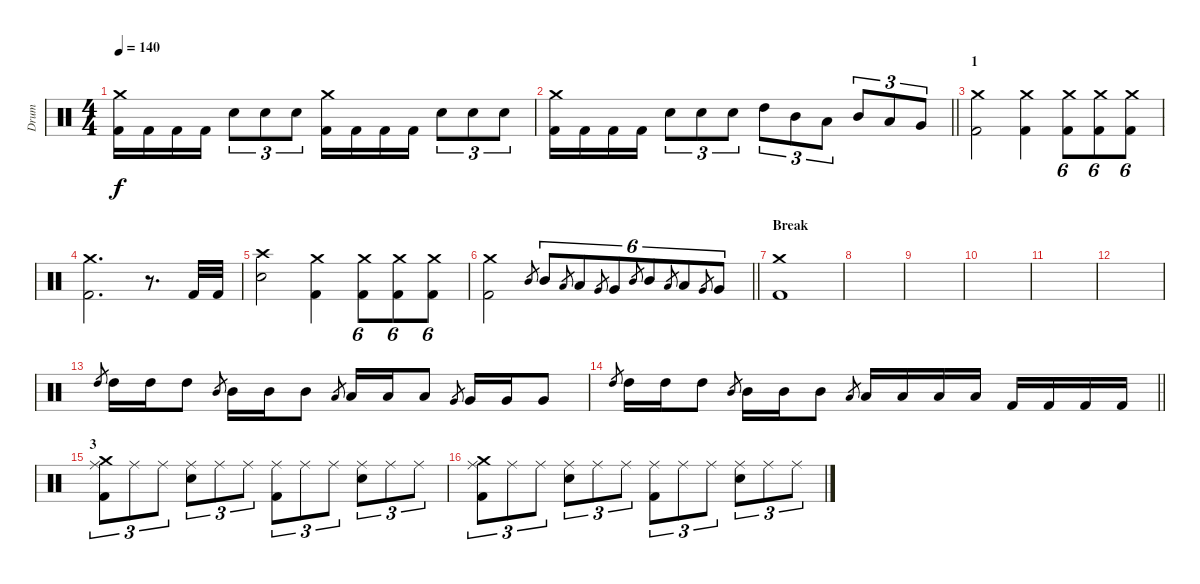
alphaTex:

\track ("Drum" "Drum") {instrument percussion}
\staff {score}
\articulation defaults
\ts (4 4)
\tempo 140
\clef neutral
\ks c
("Crash medium (hit)" "Kick (hit) 2").16{dy f} "Kick (hit) 2".16 "Kick (hit) 2".16 "Kick (hit) 2".16 "Electric Snare (hit)".8{tu (3 2)} "Electric Snare (hit)".8{tu (3 2)} "Electric Snare (hit)".8{tu (3 2)} ("Crash medium (hit)" "Kick (hit) 2").16 "Kick (hit) 2".16 "Kick (hit) 2".16 "Kick (hit) 2".16 "Electric Snare (hit)".8{tu (3 2)} "Electric Snare (hit)".8{tu (3 2)} "Electric Snare (hit)".8{tu (3 2)} |
\barLineRight lightlight
("Crash medium (hit)" "Kick (hit) 2").16 "Kick (hit) 2".16 "Kick (hit) 2".16 "Kick (hit) 2".16 "Electric Snare (hit)".8{tu (3 2)} "Electric Snare (hit)".8{tu (3 2)} "Electric Snare (hit)".8{tu (3 2)} "High Tom (hit)".8{tu (3 2)} "Mid Tom (hit)".8{tu (3 2)} "Low Tom (hit)".8{tu (3 2)} "Mid Tom (hit)".8{tu (3 2)} "Low Tom (hit)".8{tu (3 2)} "Very Low Tom (hit)".8{tu (3 2)} |
\section ("" "1")
("Crash medium (hit)" "Kick (hit) 2").2 ("Crash medium (hit)" "Kick (hit) 2").4 ("Crash medium (hit)" "Kick (hit) 2").8{tu (6 4)} ("Crash medium (hit)" "Kick (hit) 2").8{tu (6 4)} ("Crash medium (hit)" "Kick (hit) 2").8{tu (6 4)} |
("Crash medium (hit)" "Kick (hit) 2").2{d} r.8{d} "Kick (hit) 2".32 "Kick (hit) 2".32 |
("Crash high (hit)" "Electric Snare (hit)").2 ("Crash medium (hit)" "Kick (hit) 2").4 ("Crash medium (hit)" "Kick (hit) 2").8{tu (6 4)} ("Crash medium (hit)" "Kick (hit) 2").8{tu (6 4)} ("Crash medium (hit)" "Kick (hit) 2").8{tu (6 4)} |
\barLineRight lightlight
("Crash medium (hit)" "Kick (hit) 2").2 "Mid Tom (hit)".8{gr} "Mid Tom (hit)".8{tu (6 4)} "Low Tom (hit)".8{gr} "Low Tom (hit)".8{tu (6 4)} "Very Low Tom (hit)".8{gr} "Very Low Tom (hit)".8{tu (6 4)} "Mid Tom (hit)".8{gr} "Mid Tom (hit)".8{tu (6 4)} "Low Tom (hit)".8{gr} "Low Tom (hit)".8{tu (6 4)} "Very Low Tom (hit)".8{gr} "Very Low Tom (hit)".8{tu (6 4)} |
\section ("" "Break")
("Crash medium (hit)" "Kick (hit) 2").1 |
|
|
|
|
|
"High Tom (hit)".8{gr} "High Tom (hit)".16 "High Tom (hit)".16 "High Tom (hit)".8 "Mid Tom (hit)".8{gr} "Mid Tom (hit)".16 "Mid Tom (hit)".16 "Mid Tom (hit)".8 "Low Tom (hit)".8{gr} "Low Tom (hit)".16 "Low Tom (hit)".16 "Low Tom (hit)".8 "Very Low Tom (hit)".8{gr} "Very Low Tom (hit)".16 "Very Low Tom (hit)".16 "Very Low Tom (hit)".8 |
\barLineRight lightlight "High Tom (hit)".8{gr} "High Tom (hit)".16 "High Tom (hit)".16 "High Tom (hit)".8 "Mid Tom (hit)".8{gr} "Mid Tom (hit)".16 "Mid Tom (hit)".16 "Mid Tom (hit)".8 "Low Tom (hit)".8{gr} "Low Tom (hit)".16 "Low Tom (hit)".16 "Low Tom (hit)".16 "Low Tom (hit)".16 "Kick (hit) 2".16 "Kick (hit) 2".16 "Kick (hit) 2".16 "Kick (hit) 2".16
|
\section ("" "3")
("Crash medium (hit)" "Ride (middle)" "Kick (hit) 2").8{tu (3 2)} "Ride (middle)".8{tu (3 2)} "Ride (middle)".8{tu (3 2)} ("Ride (middle)" "Electric Snare (hit)").8{tu (3 2)} "Ride (middle)".8{tu (3 2)} "Ride (middle)".8{tu (3 2)} ("Ride (middle)" "Kick (hit) 2").8{tu (3 2)} "Ride (middle)".8{tu (3 2)} "Ride (middle)".8{tu (3 2)} ("Ride (middle)" "Electric Snare (hit)").8{tu (3 2)} "Ride (middle)".8{tu (3 2)} "Ride (middle)".8{tu (3 2)} |
("Crash medium (hit)" "Ride (middle)" "Kick (hit) 2").8{tu (3 2)} "Ride (middle)".8{tu (3 2)} "Ride (middle)".8{tu (3 2)} ("Ride (middle)" "Electric Snare (hit)").8{tu (3 2)} "Ride (middle)".8{tu (3 2)} "Ride (middle)".8{tu (3 2)} ("Ride (middle)" "Kick (hit) 2").8{tu (3 2)} "Ride (middle)".8{tu (3 2)} "Ride (middle)".8{tu (3 2)} ("Ride (middle)" "Electric Snare (hit)").8{tu (3 2)} "Ride (middle)".8{tu (3 2)} "Ride (middle)".8{tu (3 2)}
